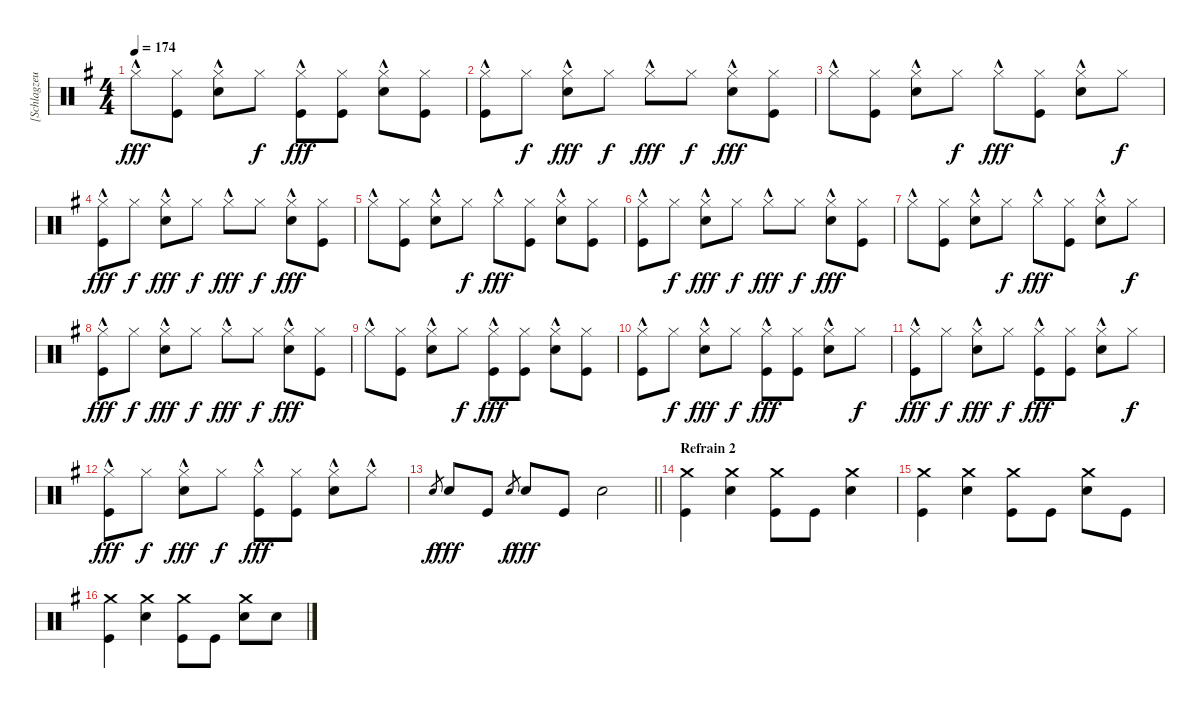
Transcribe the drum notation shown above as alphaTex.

\track ("[Schlagzeug]" "[Schlagzeu") {instrument percussion}
\staff {score}
\articulation defaults
\ts (4 4)
\tempo 174
\clef neutral
\ks g "Hi-Hat (closed)"{hac}.8{dy fff}
("Hi-Hat (closed)" "Kick (hit)").8 ("Hi-Hat (closed)"{hac} "Electric Snare (hit)").8 "Hi-Hat (closed)".8{dy f} ("Hi-Hat (closed)"{hac} "Kick (hit)").8{dy fff} ("Hi-Hat (closed)" "Kick (hit)").8 ("Hi-Hat (closed)"{hac} "Electric Snare (hit)").8 ("Hi-Hat (closed)" "Kick (hit)").8 |
("Hi-Hat (closed)"{hac} "Kick (hit)").8 "Hi-Hat (closed)".8{dy f} ("Hi-Hat (closed)"{hac} "Electric Snare (hit)").8{dy fff} "Hi-Hat (closed)".8{dy f} "Hi-Hat (closed)"{hac}.8{dy fff} "Hi-Hat (closed)".8{dy f} ("Hi-Hat (closed)"{hac} "Electric Snare (hit)").8{dy fff} ("Hi-Hat (closed)" "Kick (hit)").8 |
"Hi-Hat (closed)"{hac}.8 ("Hi-Hat (closed)" "Kick (hit)").8 ("Hi-Hat (closed)"{hac} "Electric Snare (hit)").8 "Hi-Hat (closed)".8{dy f} "Hi-Hat (closed)"{hac}.8{dy fff} ("Hi-Hat (closed)" "Kick (hit)").8 ("Hi-Hat (closed)"{hac} "Electric Snare (hit)").8 "Hi-Hat (closed)".8{dy f} |
("Hi-Hat (closed)"{hac} "Kick (hit)").8{dy fff} "Hi-Hat (closed)".8{dy f} ("Hi-Hat (closed)"{hac} "Electric Snare (hit)").8{dy fff} "Hi-Hat (closed)".8{dy f} "Hi-Hat (closed)"{hac}.8{dy fff} "Hi-Hat (closed)".8{dy f} ("Hi-Hat (closed)"{hac} "Electric Snare (hit)").8{dy fff} ("Hi-Hat (closed)" "Kick (hit)").8 |
"Hi-Hat (closed)"{hac}.8 ("Hi-Hat (closed)" "Kick (hit)").8 ("Hi-Hat (closed)"{hac} "Electric Snare (hit)").8 "Hi-Hat (closed)".8{dy f} "Hi-Hat (closed)"{hac}.8{dy fff} ("Hi-Hat (closed)" "Kick (hit)").8 ("Hi-Hat (closed)"{hac} "Electric Snare (hit)").8 ("Hi-Hat (closed)" "Kick (hit)").8 |
("Hi-Hat (closed)"{hac} "Kick (hit)").8 "Hi-Hat (closed)".8{dy f} ("Hi-Hat (closed)"{hac} "Electric Snare (hit)").8{dy fff} "Hi-Hat (closed)".8{dy f} "Hi-Hat (closed)"{hac}.8{dy fff} "Hi-Hat (closed)".8{dy f} ("Hi-Hat (closed)"{hac} "Electric Snare (hit)").8{dy fff} ("Hi-Hat (closed)" "Kick (hit)").8 |
"Hi-Hat (closed)"{hac}.8 ("Hi-Hat (closed)" "Kick (hit)").8 ("Hi-Hat (closed)"{hac} "Electric Snare (hit)").8 "Hi-Hat (closed)".8{dy f} "Hi-Hat (closed)"{hac}.8{dy fff} ("Hi-Hat (closed)" "Kick (hit)").8 ("Hi-Hat (closed)"{hac} "Electric Snare (hit)").8 "Hi-Hat (closed)".8{dy f} |
("Hi-Hat (closed)"{hac} "Kick (hit)").8{dy fff} "Hi-Hat (closed)".8{dy f} ("Hi-Hat (closed)"{hac} "Electric Snare (hit)").8{dy fff} "Hi-Hat (closed)".8{dy f} "Hi-Hat (closed)"{hac}.8{dy fff} "Hi-Hat (closed)".8{dy f} ("Hi-Hat (closed)"{hac} "Electric Snare (hit)").8{dy fff} ("Hi-Hat (closed)" "Kick (hit)").8 |
"Hi-Hat (closed)"{hac}.8 ("Hi-Hat (closed)" "Kick (hit)").8 ("Hi-Hat (closed)"{hac} "Electric Snare (hit)").8 "Hi-Hat (closed)".8{dy f} ("Hi-Hat (closed)"{hac} "Kick (hit)").8{dy fff} ("Hi-Hat (closed)" "Kick (hit)").8 ("Hi-Hat (closed)"{hac} "Electric Snare (hit)").8 ("Hi-Hat (closed)" "Kick (hit)").8 |
("Hi-Hat (closed)"{hac} "Kick (hit)").8 "Hi-Hat (closed)".8{dy f} ("Hi-Hat (closed)"{hac} "Electric Snare (hit)").8{dy fff} "Hi-Hat (closed)".8{dy f} ("Hi-Hat (closed)"{hac} "Kick (hit)").8{dy fff} ("Hi-Hat (closed)" "Kick (hit)").8 ("Hi-Hat (closed)"{hac} "Electric Snare (hit)").8 "Hi-Hat (closed)".8{dy f} |
("Hi-Hat (closed)"{hac} "Kick (hit)").8{dy fff} "Hi-Hat (closed)".8{dy f} ("Hi-Hat (closed)"{hac} "Electric Snare (hit)").8{dy fff} "Hi-Hat (closed)".8{dy f} ("Hi-Hat (closed)"{hac} "Kick (hit)").8{dy fff} ("Hi-Hat (closed)" "Kick (hit)").8 ("Hi-Hat (closed)"{hac} "Electric Snare (hit)").8 "Hi-Hat (closed)".8{dy f} |
("Hi-Hat (closed)"{hac} "Kick (hit)").8{dy fff} "Hi-Hat (closed)".8{dy f} ("Hi-Hat (closed)"{hac} "Electric Snare (hit)").8{dy fff} "Hi-Hat (closed)".8{dy f} ("Hi-Hat (closed)"{hac} "Kick (hit)").8{dy fff} ("Hi-Hat (closed)" "Kick (hit)").8 ("Hi-Hat (closed)"{hac} "Electric Snare (hit)").8 "Hi-Hat (closed)"{hac}.8 |
\barLineRight lightlight "Electric Snare (hit)".8{gr dy f} "Electric Snare (hit)".8{dy fff} "Kick (hit)".8 "Electric Snare (hit)".8{gr dy f} "Electric Snare (hit)".8{dy fff} "Kick (hit)".8 "Electric Snare (hit)".2
|
\section ("" "Refrain 2")
("Crash medium (hit)" "Kick (hit)").4 ("Crash medium (hit)" "Electric Snare (hit)").4 ("Crash medium (hit)" "Kick (hit)").8 "Kick (hit)".8 ("Crash medium (hit)" "Electric Snare (hit)").4 |
("Crash medium (hit)" "Kick (hit)").4 ("Crash medium (hit)" "Electric Snare (hit)").4 ("Crash medium (hit)" "Kick (hit)").8 "Kick (hit)".8 ("Crash medium (hit)" "Electric Snare (hit)").8 "Kick (hit)".8 |
("Crash medium (hit)" "Kick (hit)").4 ("Crash medium (hit)" "Electric Snare (hit)").4 ("Crash medium (hit)" "Kick (hit)").8 "Kick (hit)".8 ("Crash medium (hit)" "Electric Snare (hit)").8 "Electric Snare (hit)".8
